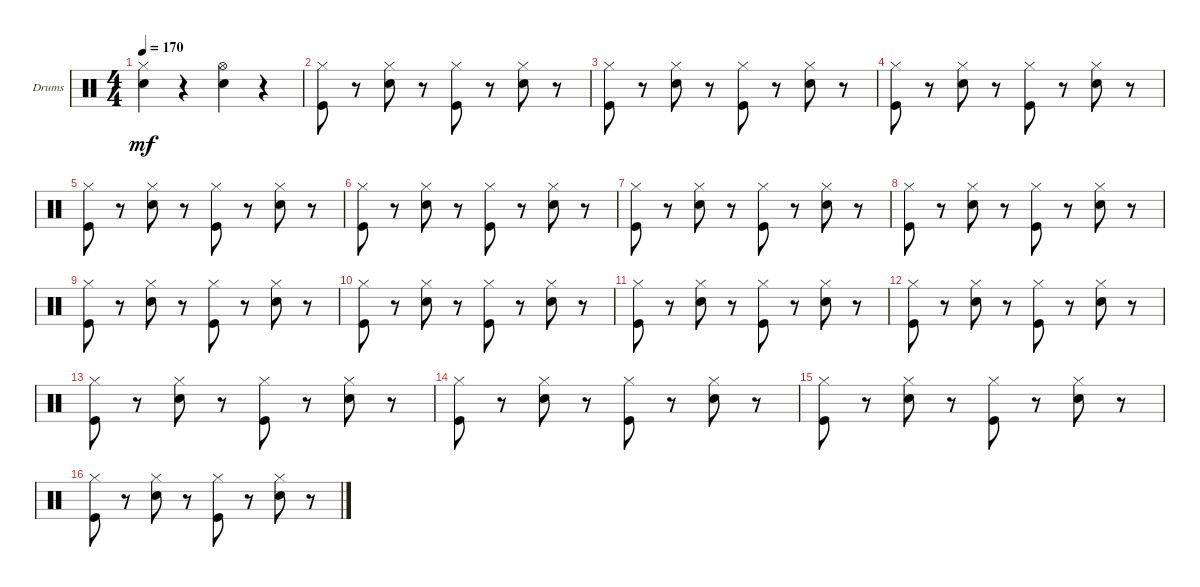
\defaultSystemsLayout 4
\bracketExtendMode groupsimilarinstruments
\firstSystemTrackNameOrientation horizontal
\otherSystemsTrackNameOrientation horizontal
\track ("Drumkit" "Drums") {instrument percussion}
\staff {score}
\articulation defaults
\ts (4 4)
\tempo 170
\clef neutral
\ks c
("Snare (hit) 2" "Hi-Hat (closed)").4{dy mf} r.4 ("Snare (hit) 2" "Hi-Hat (open)").4 r.4 |
("Kick (hit)" "Hi-Hat (closed)").8 r.8 ("Snare (hit) 2" "Hi-Hat (closed)").8 r.8 ("Kick (hit)" "Hi-Hat (closed)").8 r.8 ("Snare (hit) 2" "Hi-Hat (closed)").8 r.8 |
("Kick (hit)" "Hi-Hat (closed)").8 r.8 ("Snare (hit) 2" "Hi-Hat (closed)").8 r.8 ("Kick (hit)" "Hi-Hat (closed)").8 r.8 ("Snare (hit) 2" "Hi-Hat (closed)").8 r.8 |
("Kick (hit)" "Hi-Hat (closed)").8 r.8 ("Snare (hit) 2" "Hi-Hat (closed)").8 r.8 ("Kick (hit)" "Hi-Hat (closed)").8 r.8 ("Snare (hit) 2" "Hi-Hat (closed)").8 r.8 |
("Kick (hit)" "Hi-Hat (closed)").8 r.8 ("Snare (hit) 2" "Hi-Hat (closed)").8 r.8 ("Kick (hit)" "Hi-Hat (closed)").8 r.8 ("Snare (hit) 2" "Hi-Hat (closed)").8 r.8 |
("Kick (hit)" "Hi-Hat (closed)").8 r.8 ("Snare (hit) 2" "Hi-Hat (closed)").8 r.8 ("Kick (hit)" "Hi-Hat (closed)").8 r.8 ("Snare (hit) 2" "Hi-Hat (closed)").8 r.8 |
("Kick (hit)" "Hi-Hat (closed)").8 r.8 ("Snare (hit) 2" "Hi-Hat (closed)").8 r.8 ("Kick (hit)" "Hi-Hat (closed)").8 r.8 ("Snare (hit) 2" "Hi-Hat (closed)").8 r.8 |
("Kick (hit)" "Hi-Hat (closed)").8 r.8 ("Snare (hit) 2" "Hi-Hat (closed)").8 r.8 ("Kick (hit)" "Hi-Hat (closed)").8 r.8 ("Snare (hit) 2" "Hi-Hat (closed)").8 r.8 |
("Kick (hit)" "Hi-Hat (closed)").8 r.8 ("Snare (hit) 2" "Hi-Hat (closed)").8 r.8 ("Kick (hit)" "Hi-Hat (closed)").8 r.8 ("Snare (hit) 2" "Hi-Hat (closed)").8 r.8 |
("Kick (hit)" "Hi-Hat (closed)").8 r.8 ("Snare (hit) 2" "Hi-Hat (closed)").8 r.8 ("Kick (hit)" "Hi-Hat (closed)").8 r.8 ("Snare (hit) 2" "Hi-Hat (closed)").8 r.8 |
("Kick (hit)" "Hi-Hat (closed)").8 r.8 ("Snare (hit) 2" "Hi-Hat (closed)").8 r.8 ("Kick (hit)" "Hi-Hat (closed)").8 r.8 ("Snare (hit) 2" "Hi-Hat (closed)").8 r.8 |
("Kick (hit)" "Hi-Hat (closed)").8 r.8 ("Snare (hit) 2" "Hi-Hat (closed)").8 r.8 ("Kick (hit)" "Hi-Hat (closed)").8 r.8 ("Snare (hit) 2" "Hi-Hat (closed)").8 r.8 |
("Kick (hit)" "Hi-Hat (closed)").8 r.8 ("Snare (hit) 2" "Hi-Hat (closed)").8 r.8 ("Kick (hit)" "Hi-Hat (closed)").8 r.8 ("Snare (hit) 2" "Hi-Hat (closed)").8 r.8 |
("Kick (hit)" "Hi-Hat (closed)").8 r.8 ("Snare (hit) 2" "Hi-Hat (closed)").8 r.8 ("Kick (hit)" "Hi-Hat (closed)").8 r.8 ("Snare (hit) 2" "Hi-Hat (closed)").8 r.8 |
("Kick (hit)" "Hi-Hat (closed)").8 r.8 ("Snare (hit) 2" "Hi-Hat (closed)").8 r.8 ("Kick (hit)" "Hi-Hat (closed)").8 r.8 ("Snare (hit) 2" "Hi-Hat (closed)").8 r.8 |
("Kick (hit)" "Hi-Hat (closed)").8 r.8 ("Snare (hit) 2" "Hi-Hat (closed)").8 r.8 ("Kick (hit)" "Hi-Hat (closed)").8 r.8 ("Snare (hit) 2" "Hi-Hat (closed)").8 r.8
